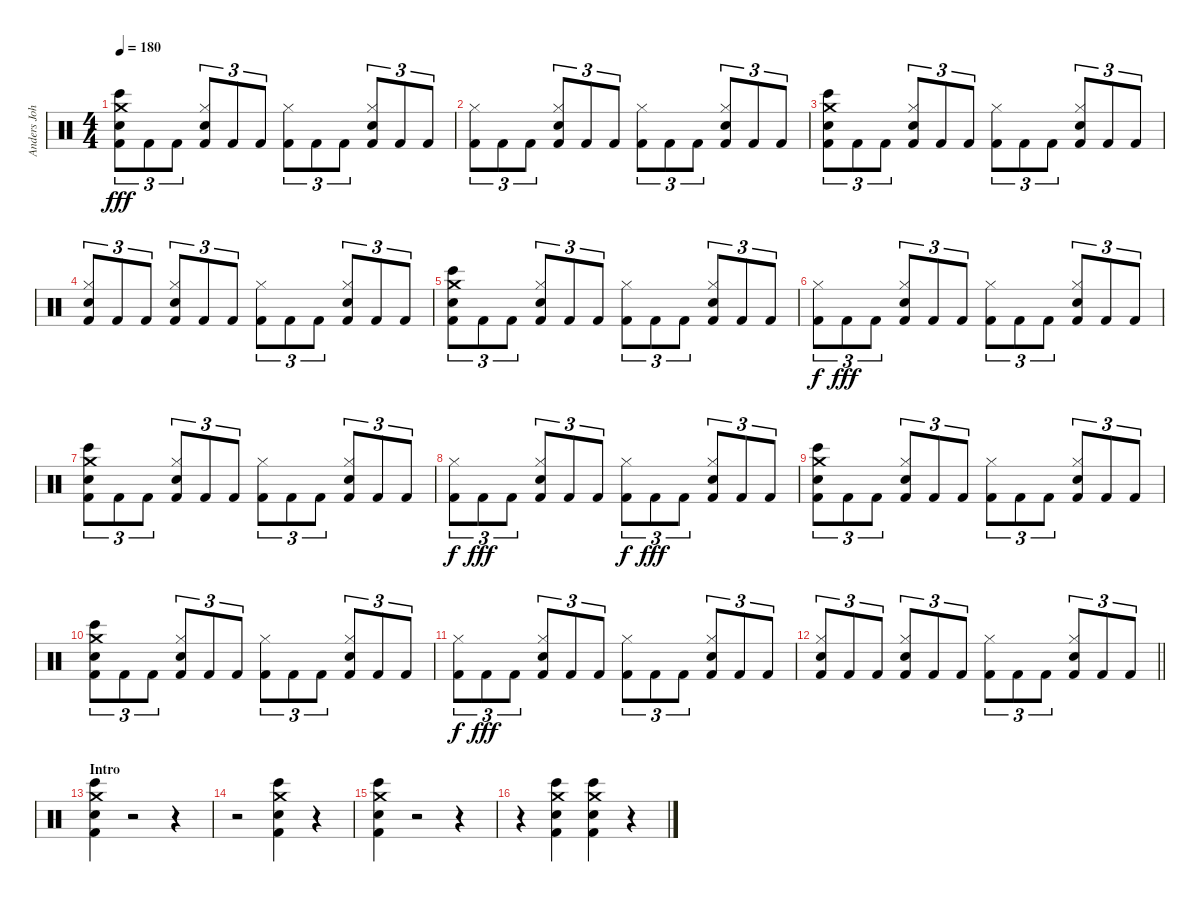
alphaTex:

\track ("Anders Johansson" "Anders Joh") {instrument percussion}
\staff {score}
\articulation defaults
\ts (4 4)
\tempo 180
\clef neutral
\ks c
("Bongo High (hit)" "Crash medium (hit)" "Snare (hit) 2" "Kick (hit) 2").8{tu (3 2) dy fff} "Kick (hit) 2".8{tu (3 2)} "Kick (hit) 2".8{tu (3 2)} ("Hi-Hat (closed)" "Electric Snare (hit)" "Kick (hit) 2").8{tu (3 2)} "Kick (hit) 2".8{tu (3 2)} "Kick (hit) 2".8{tu (3 2)} ("Hi-Hat (closed)" "Kick (hit) 2").8{tu (3 2)} "Kick (hit) 2".8{tu (3 2)} "Kick (hit) 2".8{tu (3 2)} ("Hi-Hat (closed)" "Electric Snare (hit)" "Kick (hit) 2").8{tu (3 2)} "Kick (hit) 2".8{tu (3 2)} "Kick (hit) 2".8{tu (3 2)} |
("Hi-Hat (closed)" "Kick (hit) 2").8{tu (3 2)} "Kick (hit) 2".8{tu (3 2)} "Kick (hit) 2".8{tu (3 2)} ("Hi-Hat (closed)" "Electric Snare (hit)" "Kick (hit) 2").8{tu (3 2)} "Kick (hit) 2".8{tu (3 2)} "Kick (hit) 2".8{tu (3 2)} ("Hi-Hat (closed)" "Kick (hit) 2").8{tu (3 2)} "Kick (hit) 2".8{tu (3 2)} "Kick (hit) 2".8{tu (3 2)} ("Hi-Hat (closed)" "Electric Snare (hit)" "Kick (hit) 2").8{tu (3 2)} "Kick (hit) 2".8{tu (3 2)} "Kick (hit) 2".8{tu (3 2)} |
("Bongo High (hit)" "Crash medium (hit)" "Snare (hit) 2" "Kick (hit) 2").8{tu (3 2)} "Kick (hit) 2".8{tu (3 2)} "Kick (hit) 2".8{tu (3 2)} ("Hi-Hat (closed)" "Electric Snare (hit)" "Kick (hit) 2").8{tu (3 2)} "Kick (hit) 2".8{tu (3 2)} "Kick (hit) 2".8{tu (3 2)} ("Hi-Hat (closed)" "Kick (hit) 2").8{tu (3 2)} "Kick (hit) 2".8{tu (3 2)} "Kick (hit) 2".8{tu (3 2)} ("Hi-Hat (closed)" "Electric Snare (hit)" "Kick (hit) 2").8{tu (3 2)} "Kick (hit) 2".8{tu (3 2)} "Kick (hit) 2".8{tu (3 2)} |
("Hi-Hat (closed)" "Electric Snare (hit)" "Kick (hit) 2").8{tu (3 2)} "Kick (hit) 2".8{tu (3 2)} "Kick (hit) 2".8{tu (3 2)} ("Hi-Hat (closed)" "Electric Snare (hit)" "Kick (hit) 2").8{tu (3 2)} "Kick (hit) 2".8{tu (3 2)} "Kick (hit) 2".8{tu (3 2)} ("Hi-Hat (closed)" "Kick (hit) 2").8{tu (3 2)} "Kick (hit) 2".8{tu (3 2)} "Kick (hit) 2".8{tu (3 2)} ("Hi-Hat (closed)" "Electric Snare (hit)" "Kick (hit) 2").8{tu (3 2)} "Kick (hit) 2".8{tu (3 2)} "Kick (hit) 2".8{tu (3 2)} |
("Bongo High (hit)" "Crash medium (hit)" "Snare (hit) 2" "Kick (hit) 2").8{tu (3 2)} "Kick (hit) 2".8{tu (3 2)} "Kick (hit) 2".8{tu (3 2)} ("Hi-Hat (closed)" "Electric Snare (hit)" "Kick (hit) 2").8{tu (3 2)} "Kick (hit) 2".8{tu (3 2)} "Kick (hit) 2".8{tu (3 2)} ("Hi-Hat (closed)" "Kick (hit) 2").8{tu (3 2)} "Kick (hit) 2".8{tu (3 2)} "Kick (hit) 2".8{tu (3 2)} ("Hi-Hat (closed)" "Electric Snare (hit)" "Kick (hit) 2").8{tu (3 2)} "Kick (hit) 2".8{tu (3 2)} "Kick (hit) 2".8{tu (3 2)} |
("Hi-Hat (closed)" "Kick (hit) 2").8{tu (3 2) dy f} "Kick (hit) 2".8{tu (3 2) dy fff} "Kick (hit) 2".8{tu (3 2)} ("Hi-Hat (closed)" "Electric Snare (hit)" "Kick (hit) 2").8{tu (3 2)} "Kick (hit) 2".8{tu (3 2)} "Kick (hit) 2".8{tu (3 2)} ("Hi-Hat (closed)" "Kick (hit) 2").8{tu (3 2)} "Kick (hit) 2".8{tu (3 2)} "Kick (hit) 2".8{tu (3 2)} ("Hi-Hat (closed)" "Electric Snare (hit)" "Kick (hit) 2").8{tu (3 2)} "Kick (hit) 2".8{tu (3 2)} "Kick (hit) 2".8{tu (3 2)} |
("Bongo High (hit)" "Crash medium (hit)" "Snare (hit) 2" "Kick (hit) 2").8{tu (3 2)} "Kick (hit) 2".8{tu (3 2)} "Kick (hit) 2".8{tu (3 2)} ("Hi-Hat (closed)" "Electric Snare (hit)" "Kick (hit) 2").8{tu (3 2)} "Kick (hit) 2".8{tu (3 2)} "Kick (hit) 2".8{tu (3 2)} ("Hi-Hat (closed)" "Kick (hit) 2").8{tu (3 2)} "Kick (hit) 2".8{tu (3 2)} "Kick (hit) 2".8{tu (3 2)} ("Hi-Hat (closed)" "Electric Snare (hit)" "Kick (hit) 2").8{tu (3 2)} "Kick (hit) 2".8{tu (3 2)} "Kick (hit) 2".8{tu (3 2)} |
("Hi-Hat (closed)" "Kick (hit) 2").8{tu (3 2) dy f} "Kick (hit) 2".8{tu (3 2) dy fff} "Kick (hit) 2".8{tu (3 2)} ("Hi-Hat (closed)" "Electric Snare (hit)" "Kick (hit) 2").8{tu (3 2)} "Kick (hit) 2".8{tu (3 2)} "Kick (hit) 2".8{tu (3 2)} ("Hi-Hat (closed)" "Kick (hit) 2").8{tu (3 2) dy f} "Kick (hit) 2".8{tu (3 2) dy fff} "Kick (hit) 2".8{tu (3 2)} ("Hi-Hat (closed)" "Electric Snare (hit)" "Kick (hit) 2").8{tu (3 2)} "Kick (hit) 2".8{tu (3 2)} "Kick (hit) 2".8{tu (3 2)} |
("Bongo High (hit)" "Crash medium (hit)" "Snare (hit) 2" "Kick (hit) 2").8{tu (3 2)} "Kick (hit) 2".8{tu (3 2)} "Kick (hit) 2".8{tu (3 2)} ("Hi-Hat (closed)" "Electric Snare (hit)" "Kick (hit) 2").8{tu (3 2)} "Kick (hit) 2".8{tu (3 2)} "Kick (hit) 2".8{tu (3 2)} ("Hi-Hat (closed)" "Kick (hit) 2").8{tu (3 2)} "Kick (hit) 2".8{tu (3 2)} "Kick (hit) 2".8{tu (3 2)} ("Hi-Hat (closed)" "Electric Snare (hit)" "Kick (hit) 2").8{tu (3 2)} "Kick (hit) 2".8{tu (3 2)} "Kick (hit) 2".8{tu (3 2)} |
("Bongo High (hit)" "Crash medium (hit)" "Snare (hit) 2" "Kick (hit) 2").8{tu (3 2)} "Kick (hit) 2".8{tu (3 2)} "Kick (hit) 2".8{tu (3 2)} ("Hi-Hat (closed)" "Electric Snare (hit)" "Kick (hit) 2").8{tu (3 2)} "Kick (hit) 2".8{tu (3 2)} "Kick (hit) 2".8{tu (3 2)} ("Hi-Hat (closed)" "Kick (hit) 2").8{tu (3 2)} "Kick (hit) 2".8{tu (3 2)} "Kick (hit) 2".8{tu (3 2)} ("Hi-Hat (closed)" "Electric Snare (hit)" "Kick (hit) 2").8{tu (3 2)} "Kick (hit) 2".8{tu (3 2)} "Kick (hit) 2".8{tu (3 2)} |
("Hi-Hat (closed)" "Kick (hit) 2").8{tu (3 2) dy f} "Kick (hit) 2".8{tu (3 2) dy fff} "Kick (hit) 2".8{tu (3 2)} ("Hi-Hat (closed)" "Electric Snare (hit)" "Kick (hit) 2").8{tu (3 2)} "Kick (hit) 2".8{tu (3 2)} "Kick (hit) 2".8{tu (3 2)} ("Hi-Hat (closed)" "Kick (hit) 2").8{tu (3 2)} "Kick (hit) 2".8{tu (3 2)} "Kick (hit) 2".8{tu (3 2)} ("Hi-Hat (closed)" "Electric Snare (hit)" "Kick (hit) 2").8{tu (3 2)} "Kick (hit) 2".8{tu (3 2)} "Kick (hit) 2".8{tu (3 2)} |
\barLineRight lightlight
("Hi-Hat (closed)" "Electric Snare (hit)" "Kick (hit) 2").8{tu (3 2)} "Kick (hit) 2".8{tu (3 2)} "Kick (hit) 2".8{tu (3 2)} ("Hi-Hat (closed)" "Electric Snare (hit)" "Kick (hit) 2").8{tu (3 2)} "Kick (hit) 2".8{tu (3 2)} "Kick (hit) 2".8{tu (3 2)} ("Hi-Hat (closed)" "Kick (hit) 2").8{tu (3 2)} "Kick (hit) 2".8{tu (3 2)} "Kick (hit) 2".8{tu (3 2)} ("Hi-Hat (closed)" "Electric Snare (hit)" "Kick (hit) 2").8{tu (3 2)} "Kick (hit) 2".8{tu (3 2)} "Kick (hit) 2".8{tu (3 2)} |
\section ("" "Intro")
("Bongo High (hit)" "Crash medium (hit)" "Snare (hit) 2" "Kick (hit) 2").4 r.2 r.4 |
r.2 ("Bongo High (hit)" "Crash medium (hit)" "Snare (hit) 2" "Kick (hit) 2").4 r.4 |
("Bongo High (hit)" "Crash medium (hit)" "Snare (hit) 2" "Kick (hit) 2").4 r.2 r.4 |
r.4 ("Bongo High (hit)" "Crash medium (hit)" "Snare (hit) 2" "Kick (hit) 2").4 ("Bongo High (hit)" "Crash medium (hit)" "Snare (hit) 2" "Kick (hit) 2").4 r.4
